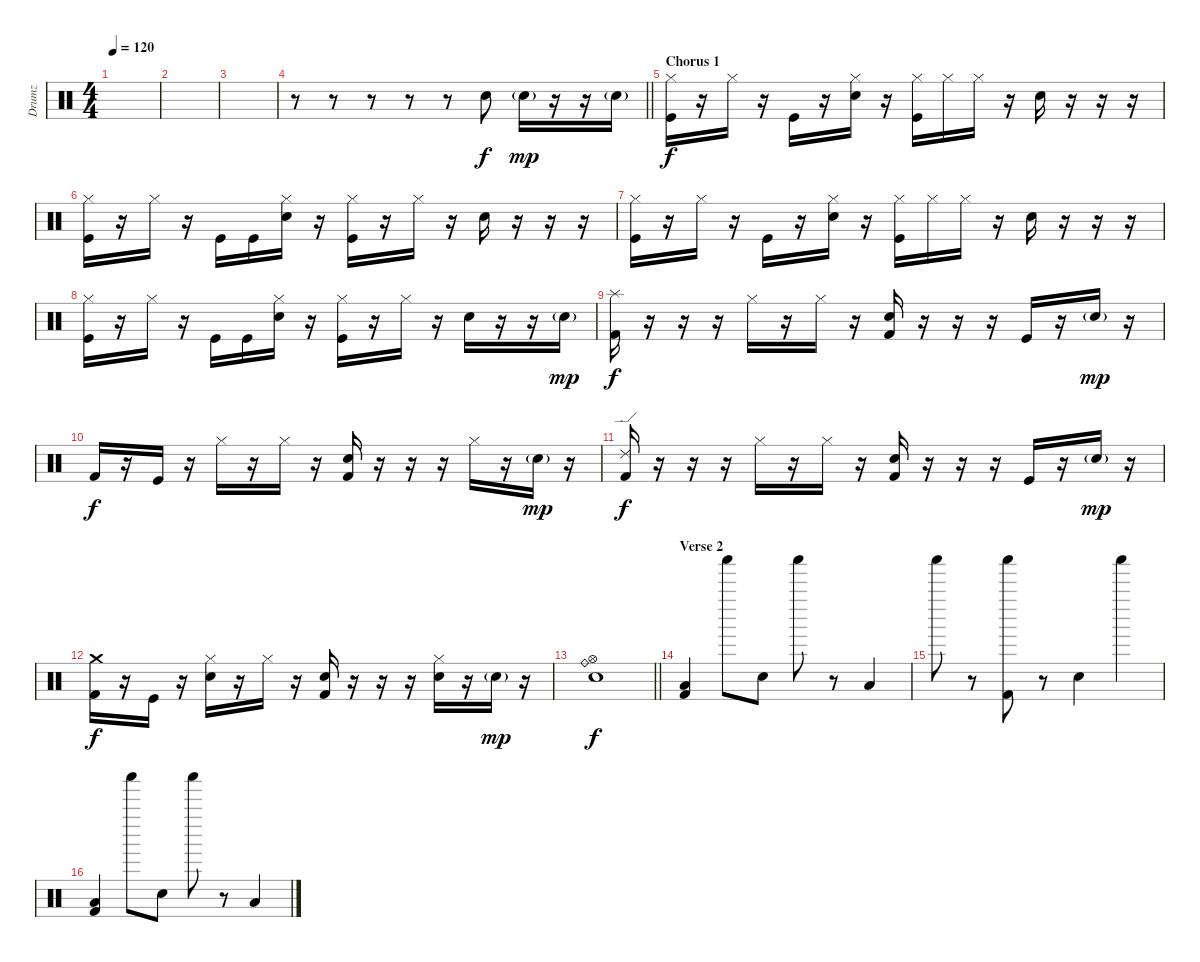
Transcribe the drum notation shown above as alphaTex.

\track ("Drumz" "Drumz") {instrument percussion}
\staff {score}
\articulation defaults
\ts (4 4)
\tempo 120
\clef neutral
\ks c
|
|
|
\barLineRight lightlight
r.8 r.8 r.8 r.8 r.8 "Electric Snare (hit)".8 "Electric Snare (hit)"{g}.16{dy mp} r.16 r.16 "Electric Snare (hit)"{g}.16 |
\section ("" "Chorus 1")
("Hi-Hat (closed)" "Kick (hit)").16{dy f} r.16 "Hi-Hat (closed)".16 r.16 "Kick (hit)".16 r.16 ("Hi-Hat (closed)" "Electric Snare (hit)").16 r.16 ("Hi-Hat (closed)" "Kick (hit)").16 "Hi-Hat (closed)".16 "Hi-Hat (closed)".16 r.16 "Electric Snare (hit)".16 r.16 r.16 r.16 |
("Hi-Hat (closed)" "Kick (hit)").16 r.16 "Hi-Hat (closed)".16 r.16 "Kick (hit)".16 "Kick (hit)".16 ("Hi-Hat (closed)" "Electric Snare (hit)").16 r.16 ("Hi-Hat (closed)" "Kick (hit)").16 r.16 "Hi-Hat (closed)".16 r.16 "Electric Snare (hit)".16 r.16 r.16 r.16 |
("Hi-Hat (closed)" "Kick (hit)").16 r.16 "Hi-Hat (closed)".16 r.16 "Kick (hit)".16 r.16 ("Hi-Hat (closed)" "Electric Snare (hit)").16 r.16 ("Hi-Hat (closed)" "Kick (hit)").16 "Hi-Hat (closed)".16 "Hi-Hat (closed)".16 r.16 "Electric Snare (hit)".16 r.16 r.16 r.16 |
("Hi-Hat (closed)" "Kick (hit)").16 r.16 "Hi-Hat (closed)".16 r.16 "Kick (hit)".16 "Kick (hit)".16 ("Hi-Hat (closed)" "Electric Snare (hit)").16 r.16 ("Hi-Hat (closed)" "Kick (hit)").16 r.16 "Hi-Hat (closed)".16 r.16 "Electric Snare (hit)".16 r.16 r.16 "Electric Snare (hit)"{g}.16{dy mp} |
("Splash (hit)" "Kick (hit) 2").16{dy f} r.16 r.16 r.16 "Hi-Hat (closed)".16 r.16 "Hi-Hat (closed)".16 r.16 ("Electric Snare (hit)" "Kick (hit) 2").16 r.16 r.16 r.16 "Kick (hit)".16 r.16 "Electric Snare (hit)"{g}.16{dy mp} r.16 |
"Kick (hit) 2".16{dy f} r.16 "Kick (hit)".16 r.16 "Hi-Hat (closed)".16 r.16 "Hi-Hat (closed)".16 r.16 ("Electric Snare (hit)" "Kick (hit) 2").16 r.16 r.16 r.16 "Hi-Hat (closed)".16 r.16 "Electric Snare (hit)"{g}.16{dy mp} r.16 |
("Ride (edge) 2" "Kick (hit) 2").16{dy f} r.16 r.16 r.16 "Hi-Hat (closed)".16 r.16 "Hi-Hat (closed)".16 r.16 ("Electric Snare (hit)" "Kick (hit) 2").16 r.16 r.16 r.16 "Kick (hit)".16 r.16 "Electric Snare (hit)"{g}.16{dy mp} r.16 |
("Crash medium (hit)" "Kick (hit) 2").16{dy f} r.16 "Kick (hit)".16 r.16 ("Electric Snare (hit)" "Hi-Hat (closed)").16 r.16 "Hi-Hat (closed)".16 r.16 ("Electric Snare (hit)" "Kick (hit) 2").16 r.16 r.16 r.16 ("Electric Snare (hit)" "Hi-Hat (closed)").16 r.16 "Electric Snare (hit)"{g}.16{dy mp} r.16 |
\barLineRight lightlight
("Ride (bell)" "Hi-Hat (open)" "Electric Snare (hit)").1{dy f} |
\section ("" "Verse 2")
("Low Tom (hit)" "Kick (hit) 2").4 "Shaker (hit)".8 "Electric Snare (hit)".8 "Shaker (hit)".8 r.8 "Low Tom (hit)".4 |
"Shaker (hit)".8 r.8 ("Kick (hit) 2" "Shaker (hit)").8 r.8 "Electric Snare (hit)".4 "Shaker (hit)".4 |
("Low Tom (hit)" "Kick (hit) 2").4 "Shaker (hit)".8 "Electric Snare (hit)".8 "Shaker (hit)".8 r.8 "Low Tom (hit)".4
